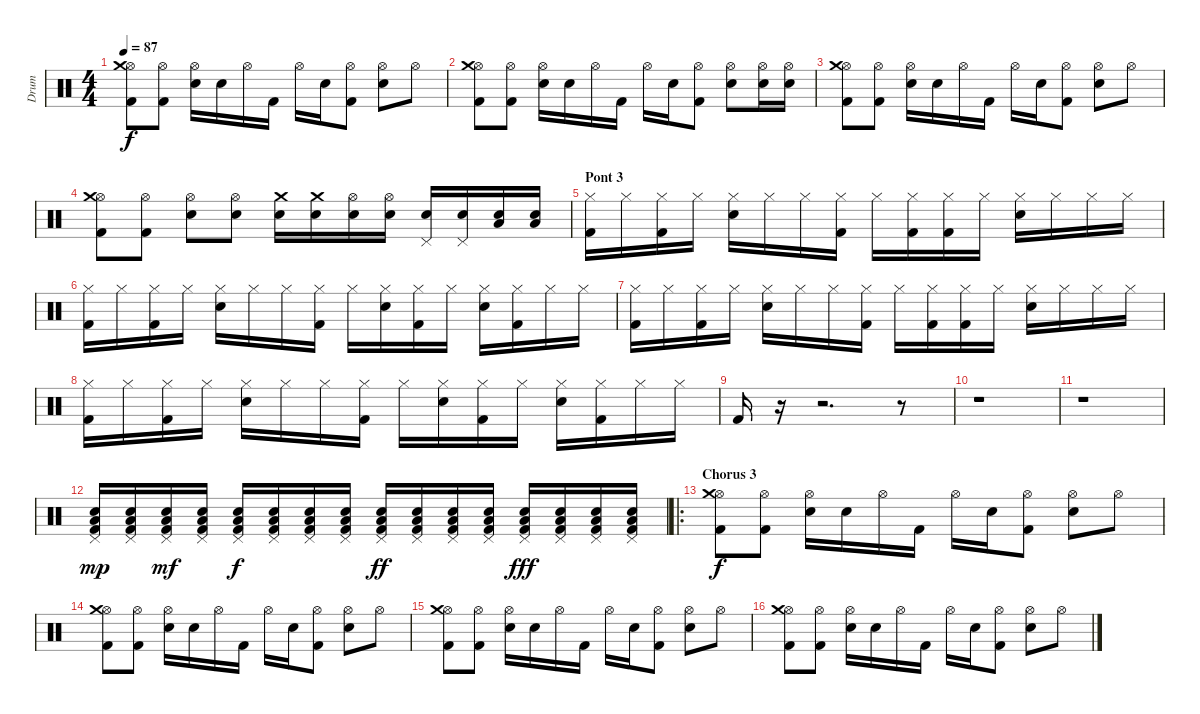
\track ("Drum" "Drum") {instrument percussion}
\staff {score}
\articulation defaults
\ts (4 4)
\tempo 87
\clef neutral
\ks c
("Hi-Hat (open)" "Crash medium (hit)" "Kick (hit) 2").8{dy f} ("Hi-Hat (open)" "Kick (hit) 2").8 ("Hi-Hat (open)" "Snare (hit) 2").16 "Snare (hit) 2".16 "Hi-Hat (open)".16 "Kick (hit) 2".16 "Hi-Hat (open)".16 "Snare (hit) 2".16 ("Hi-Hat (open)" "Kick (hit) 2").8 ("Hi-Hat (open)" "Snare (hit) 2").8 "Hi-Hat (open)".8 |
("Hi-Hat (open)" "Crash medium (hit)" "Kick (hit) 2").8 ("Hi-Hat (open)" "Kick (hit) 2").8 ("Hi-Hat (open)" "Snare (hit) 2").16 "Snare (hit) 2".16 "Hi-Hat (open)".16 "Kick (hit) 2".16 "Hi-Hat (open)".16 "Snare (hit) 2".16 ("Hi-Hat (open)" "Kick (hit) 2").8 ("Hi-Hat (open)" "Snare (hit) 2").8 ("Hi-Hat (open)" "Snare (hit) 2").16 ("Hi-Hat (open)" "Snare (hit) 2").16 |
("Hi-Hat (open)" "Crash medium (hit)" "Kick (hit) 2").8 ("Hi-Hat (open)" "Kick (hit) 2").8 ("Hi-Hat (open)" "Snare (hit) 2").16 "Snare (hit) 2".16 "Hi-Hat (open)".16 "Kick (hit) 2".16 "Hi-Hat (open)".16 "Snare (hit) 2".16 ("Hi-Hat (open)" "Kick (hit) 2").8 ("Hi-Hat (open)" "Snare (hit) 2").8 "Hi-Hat (open)".8 |
("Hi-Hat (open)" "Crash medium (hit)" "Kick (hit) 2").8 ("Hi-Hat (open)" "Kick (hit) 2").8 ("Hi-Hat (open)" "Snare (hit) 2").8 ("Hi-Hat (open)" "Snare (hit) 2").8 ("Crash medium (hit)" "Snare (hit) 2").16 ("Crash medium (hit)" "Snare (hit) 2").16 ("Hi-Hat (open)" "Snare (hit) 2").16 ("Hi-Hat (open)" "Snare (hit) 2").16 ("Pedal Hi-Hat (hit)" "Snare (hit) 2").16 ("Pedal Hi-Hat (hit)" "Snare (hit) 2").16 ("Low Tom (hit)" "Snare (hit) 2").16 ("Low Tom (hit)" "Snare (hit) 2").16 |
\section ("" "Pont 3")
("Hi-Hat (closed)" "Kick (hit) 2").16 "Hi-Hat (closed)".16 ("Hi-Hat (closed)" "Kick (hit) 2").16 "Hi-Hat (closed)".16 ("Hi-Hat (closed)" "Snare (hit) 2").16 "Hi-Hat (closed)".16 "Hi-Hat (closed)".16 ("Hi-Hat (closed)" "Kick (hit) 2").16 "Hi-Hat (closed)".16 ("Hi-Hat (closed)" "Kick (hit) 2").16 ("Hi-Hat (closed)" "Kick (hit) 2").16 "Hi-Hat (closed)".16 ("Hi-Hat (closed)" "Snare (hit) 2").16 "Hi-Hat (closed)".16 "Hi-Hat (closed)".16 "Hi-Hat (closed)".16 |
("Hi-Hat (closed)" "Kick (hit) 2").16 "Hi-Hat (closed)".16 ("Hi-Hat (closed)" "Kick (hit) 2").16 "Hi-Hat (closed)".16 ("Hi-Hat (closed)" "Snare (hit) 2").16 "Hi-Hat (closed)".16 "Hi-Hat (closed)".16 ("Hi-Hat (closed)" "Kick (hit) 2").16 "Hi-Hat (closed)".16 ("Hi-Hat (closed)" "Snare (hit) 2").16 ("Hi-Hat (closed)" "Kick (hit) 2").16 "Hi-Hat (closed)".16 ("Hi-Hat (closed)" "Snare (hit) 2").16 ("Hi-Hat (closed)" "Kick (hit) 2").16 "Hi-Hat (closed)".16 "Hi-Hat (closed)".16 |
("Hi-Hat (closed)" "Kick (hit) 2").16 "Hi-Hat (closed)".16 ("Hi-Hat (closed)" "Kick (hit) 2").16 "Hi-Hat (closed)".16 ("Hi-Hat (closed)" "Snare (hit) 2").16 "Hi-Hat (closed)".16 "Hi-Hat (closed)".16 ("Hi-Hat (closed)" "Kick (hit) 2").16 "Hi-Hat (closed)".16 ("Hi-Hat (closed)" "Kick (hit) 2").16 ("Hi-Hat (closed)" "Kick (hit) 2").16 "Hi-Hat (closed)".16 ("Hi-Hat (closed)" "Snare (hit) 2").16 "Hi-Hat (closed)".16 "Hi-Hat (closed)".16 "Hi-Hat (closed)".16 |
("Hi-Hat (closed)" "Kick (hit) 2").16 "Hi-Hat (closed)".16 ("Hi-Hat (closed)" "Kick (hit) 2").16 "Hi-Hat (closed)".16 ("Hi-Hat (closed)" "Snare (hit) 2").16 "Hi-Hat (closed)".16 "Hi-Hat (closed)".16 ("Hi-Hat (closed)" "Kick (hit) 2").16 "Hi-Hat (closed)".16 ("Hi-Hat (closed)" "Snare (hit) 2").16 ("Hi-Hat (closed)" "Kick (hit) 2").16 "Hi-Hat (closed)".16 ("Hi-Hat (closed)" "Snare (hit) 2").16 ("Hi-Hat (closed)" "Kick (hit) 2").16 "Hi-Hat (closed)".16 "Hi-Hat (closed)".16 |
"Kick (hit) 2".16 r.16 r.2{d} r.8 |
r.1 |
r.1 |
("Pedal Hi-Hat (hit)" "Low Tom (hit)" "Snare (hit) 2" "Kick (hit) 2").16{dy mp} ("Pedal Hi-Hat (hit)" "Low Tom (hit)" "Snare (hit) 2" "Kick (hit) 2").16 ("Pedal Hi-Hat (hit)" "Low Tom (hit)" "Snare (hit) 2" "Kick (hit) 2").16{dy mf} ("Pedal Hi-Hat (hit)" "Low Tom (hit)" "Snare (hit) 2" "Kick (hit) 2").16 ("Pedal Hi-Hat (hit)" "Low Tom (hit)" "Snare (hit) 2" "Kick (hit) 2").16{dy f} ("Pedal Hi-Hat (hit)" "Low Tom (hit)" "Snare (hit) 2" "Kick (hit) 2").16 ("Pedal Hi-Hat (hit)" "Low Tom (hit)" "Snare (hit) 2" "Kick (hit) 2").16 ("Pedal Hi-Hat (hit)" "Low Tom (hit)" "Snare (hit) 2" "Kick (hit) 2").16 ("Pedal Hi-Hat (hit)" "Low Tom (hit)" "Snare (hit) 2" "Kick (hit) 2").16{dy ff} ("Pedal Hi-Hat (hit)" "Low Tom (hit)" "Snare (hit) 2" "Kick (hit) 2").16 ("Pedal Hi-Hat (hit)" "Low Tom (hit)" "Snare (hit) 2" "Kick (hit) 2").16 ("Pedal Hi-Hat (hit)" "Low Tom (hit)" "Snare (hit) 2" "Kick (hit) 2").16 ("Pedal Hi-Hat (hit)" "Low Tom (hit)" "Snare (hit) 2" "Kick (hit) 2").16{dy fff} ("Pedal Hi-Hat (hit)" "Low Tom (hit)" "Snare (hit) 2" "Kick (hit) 2").16 ("Pedal Hi-Hat (hit)" "Low Tom (hit)" "Snare (hit) 2" "Kick (hit) 2").16 ("Pedal Hi-Hat (hit)" "Low Tom (hit)" "Snare (hit) 2" "Kick (hit) 2").16 |
\ro
\section ("" "Chorus 3")
("Hi-Hat (open)" "Crash medium (hit)" "Kick (hit) 2").8{dy f} ("Hi-Hat (open)" "Kick (hit) 2").8 ("Hi-Hat (open)" "Snare (hit) 2").16 "Snare (hit) 2".16 "Hi-Hat (open)".16 "Kick (hit) 2".16 "Hi-Hat (open)".16 "Snare (hit) 2".16 ("Hi-Hat (open)" "Kick (hit) 2").8 ("Hi-Hat (open)" "Snare (hit) 2").8 "Hi-Hat (open)".8 |
("Hi-Hat (open)" "Crash medium (hit)" "Kick (hit) 2").8 ("Hi-Hat (open)" "Kick (hit) 2").8 ("Hi-Hat (open)" "Snare (hit) 2").16 "Snare (hit) 2".16 "Hi-Hat (open)".16 "Kick (hit) 2".16 "Hi-Hat (open)".16 "Snare (hit) 2".16 ("Hi-Hat (open)" "Kick (hit) 2").8 ("Hi-Hat (open)" "Snare (hit) 2").8 "Hi-Hat (open)".8 |
("Hi-Hat (open)" "Crash medium (hit)" "Kick (hit) 2").8 ("Hi-Hat (open)" "Kick (hit) 2").8 ("Hi-Hat (open)" "Snare (hit) 2").16 "Snare (hit) 2".16 "Hi-Hat (open)".16 "Kick (hit) 2".16 "Hi-Hat (open)".16 "Snare (hit) 2".16 ("Hi-Hat (open)" "Kick (hit) 2").8 ("Hi-Hat (open)" "Snare (hit) 2").8 "Hi-Hat (open)".8 |
("Hi-Hat (open)" "Crash medium (hit)" "Kick (hit) 2").8 ("Hi-Hat (open)" "Kick (hit) 2").8 ("Hi-Hat (open)" "Snare (hit) 2").16 "Snare (hit) 2".16 "Hi-Hat (open)".16 "Kick (hit) 2".16 "Hi-Hat (open)".16 "Snare (hit) 2".16 ("Hi-Hat (open)" "Kick (hit) 2").8 ("Hi-Hat (open)" "Snare (hit) 2").8 "Hi-Hat (open)".8
